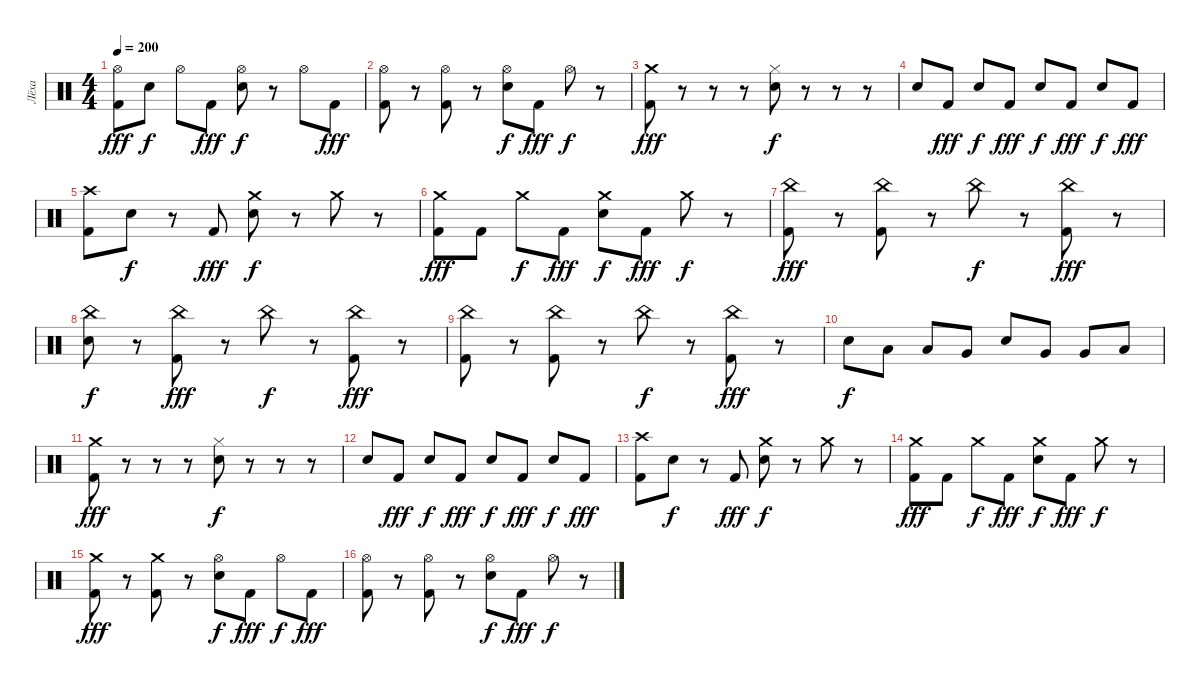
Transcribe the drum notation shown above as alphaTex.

\track ("Лёха" "Лёха") {instrument percussion}
\staff {score}
\articulation defaults
\ts (4 4)
\tempo 200
\clef neutral
\ks c
("Hi-Hat (open)" "Kick (hit) 2").8{dy fff} "Electric Snare (hit)".8{dy f} "Hi-Hat (open)".8 "Kick (hit) 2".8{dy fff} ("Hi-Hat (open)" "Electric Snare (hit)").8{dy f} r.8 "Hi-Hat (open)".8 "Kick (hit) 2".8{dy fff} |
("Hi-Hat (open)" "Kick (hit) 2").8 r.8 ("Hi-Hat (open)" "Kick (hit) 2").8 r.8 ("Hi-Hat (open)" "Electric Snare (hit)").8{dy f} "Kick (hit) 2".8{dy fff} "Hi-Hat (open)".8{dy f} r.8 |
("Crash medium (hit)" "Kick (hit) 2").8{dy fff} r.8 r.8 r.8 ("Hi-Hat (closed)" "Electric Snare (hit)").8{dy f} r.8 r.8 r.8 |
"Electric Snare (hit)".8 "Kick (hit) 2".8{dy fff} "Electric Snare (hit)".8{dy f} "Kick (hit) 2".8{dy fff} "Electric Snare (hit)".8{dy f} "Kick (hit) 2".8{dy fff} "Electric Snare (hit)".8{dy f} "Kick (hit) 2".8{dy fff} |
("Crash high (hit)" "Kick (hit) 2").8 "Electric Snare (hit)".8{dy f} r.8 "Kick (hit) 2".8{dy fff} ("Crash medium (hit)" "Electric Snare (hit)").8{dy f} r.8 "Crash medium (hit)".8 r.8 |
("Crash medium (hit)" "Kick (hit) 2").8{dy fff} "Kick (hit) 2".8 "Crash medium (hit)".8{dy f} "Kick (hit) 2".8{dy fff} ("Crash medium (hit)" "Electric Snare (hit)").8{dy f} "Kick (hit) 2".8{dy fff} "Crash medium (hit)".8{dy f} r.8 |
("China (hit)" "Kick (hit) 2").8{dy fff} r.8 ("China (hit)" "Kick (hit) 2").8 r.8 "China (hit)".8{dy f} r.8 ("China (hit)" "Kick (hit) 2").8{dy fff} r.8 |
("China (hit)" "Electric Snare (hit)").8{dy f} r.8 ("China (hit)" "Kick (hit) 2").8{dy fff} r.8 "China (hit)".8{dy f} r.8 ("China (hit)" "Kick (hit) 2").8{dy fff} r.8 |
("China (hit)" "Kick (hit) 2").8 r.8 ("China (hit)" "Kick (hit) 2").8 r.8 "China (hit)".8{dy f} r.8 ("China (hit)" "Kick (hit) 2").8{dy fff} r.8 |
"Electric Snare (hit)".8{dy f} "Low Tom (hit)".8 "Low Tom (hit)".8 "Very Low Tom (hit)".8 "Electric Snare (hit)".8 "Very Low Tom (hit)".8 "Very Low Tom (hit)".8 "Low Floor Tom (hit)".8 |
("Crash medium (hit)" "Kick (hit) 2").8{dy fff} r.8 r.8 r.8 ("Hi-Hat (closed)" "Electric Snare (hit)").8{dy f} r.8 r.8 r.8 |
"Electric Snare (hit)".8 "Kick (hit) 2".8{dy fff} "Electric Snare (hit)".8{dy f} "Kick (hit) 2".8{dy fff} "Electric Snare (hit)".8{dy f} "Kick (hit) 2".8{dy fff} "Electric Snare (hit)".8{dy f} "Kick (hit) 2".8{dy fff} |
("Crash high (hit)" "Kick (hit) 2").8 "Electric Snare (hit)".8{dy f} r.8 "Kick (hit) 2".8{dy fff} ("Crash medium (hit)" "Electric Snare (hit)").8{dy f} r.8 "Crash medium (hit)".8 r.8 |
("Crash medium (hit)" "Kick (hit) 2").8{dy fff} "Kick (hit) 2".8 "Crash medium (hit)".8{dy f} "Kick (hit) 2".8{dy fff} ("Crash medium (hit)" "Electric Snare (hit)").8{dy f} "Kick (hit) 2".8{dy fff} "Crash medium (hit)".8{dy f} r.8 |
("Crash medium (hit)" "Kick (hit) 2").8{dy fff} r.8 ("Crash medium (hit)" "Kick (hit) 2").8 r.8 ("Hi-Hat (open)" "Electric Snare (hit)").8{dy f} "Kick (hit) 2".8{dy fff} "Hi-Hat (open)".8{dy f} "Kick (hit) 2".8{dy fff} |
("Hi-Hat (open)" "Kick (hit) 2").8 r.8 ("Hi-Hat (open)" "Kick (hit) 2").8 r.8 ("Hi-Hat (open)" "Electric Snare (hit)").8{dy f} "Kick (hit) 2".8{dy fff} "Hi-Hat (open)".8{dy f} r.8
